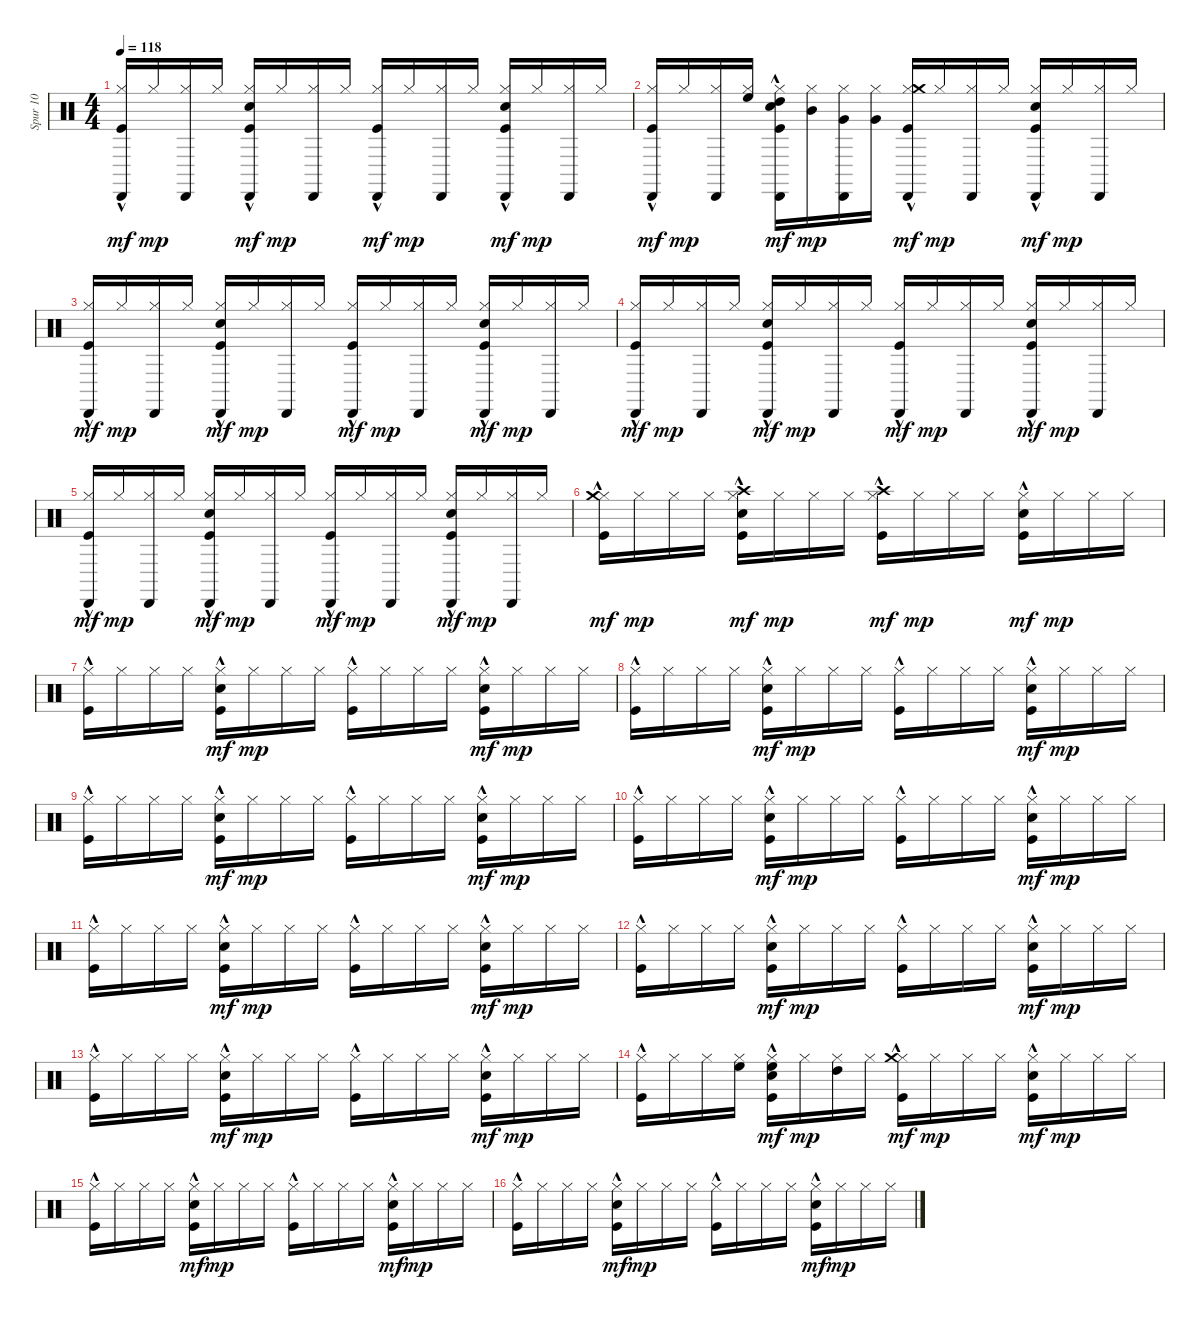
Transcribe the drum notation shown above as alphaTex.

\track ("Spur 10" "Spur 10") {instrument percussion}
\staff {score}
\articulation defaults
\ts (4 4)
\tempo 118
\clef neutral
\ks c
("Hi-Hat (closed)" "Kick (hit)"{hac} "Cabasa (hit)").16{dy mf} "Hi-Hat (closed)".16{dy mp} ("Hi-Hat (closed)" "Cabasa (hit)").16 "Hi-Hat (closed)".16 ("Hi-Hat (closed)" "Kick (hit)"{hac} "Electric Snare (hit)" "Cabasa (hit)").16{dy mf} "Hi-Hat (closed)".16{dy mp} ("Hi-Hat (closed)" "Cabasa (hit)").16 "Hi-Hat (closed)".16 ("Hi-Hat (closed)" "Kick (hit)"{hac} "Cabasa (hit)").16{dy mf} "Hi-Hat (closed)".16{dy mp} ("Hi-Hat (closed)" "Cabasa (hit)").16 "Hi-Hat (closed)".16 ("Hi-Hat (closed)" "Kick (hit)"{hac} "Electric Snare (hit)" "Cabasa (hit)").16{dy mf} "Hi-Hat (closed)".16{dy mp} ("Hi-Hat (closed)" "Cabasa (hit)").16 "Hi-Hat (closed)".16 |
("Hi-Hat (closed)" "Kick (hit)"{hac} "Cabasa (hit)").16{dy mf} "Hi-Hat (closed)".16{dy mp} ("Hi-Hat (closed)" "Cabasa (hit)").16 ("High Floor Tom (hit)" "Hi-Hat (closed)").16 ("High Tom (hit)" "Hi-Hat (closed)" "Kick (hit)"{hac} "Electric Snare (hit)" "Cabasa (hit)").16{dy mf} ("Mid Tom (hit)" "Hi-Hat (closed)").16{dy mp} ("Very Low Tom (hit)" "Hi-Hat (closed)" "Cabasa (hit)").16 ("Very Low Tom (hit)" "Hi-Hat (closed)").16 ("Hi-Hat (closed)" "Kick (hit)"{hac} "Crash medium (hit)"{hac} "Cabasa (hit)").16{dy mf} "Hi-Hat (closed)".16{dy mp} ("Hi-Hat (closed)" "Cabasa (hit)").16 "Hi-Hat (closed)".16 ("Hi-Hat (closed)" "Kick (hit)"{hac} "Electric Snare (hit)" "Cabasa (hit)").16{dy mf} "Hi-Hat (closed)".16{dy mp} ("Hi-Hat (closed)" "Cabasa (hit)").16 "Hi-Hat (closed)".16 |
("Hi-Hat (closed)" "Kick (hit)"{hac} "Cabasa (hit)").16{dy mf} "Hi-Hat (closed)".16{dy mp} ("Hi-Hat (closed)" "Cabasa (hit)").16 "Hi-Hat (closed)".16 ("Hi-Hat (closed)" "Kick (hit)"{hac} "Electric Snare (hit)" "Cabasa (hit)").16{dy mf} "Hi-Hat (closed)".16{dy mp} ("Hi-Hat (closed)" "Cabasa (hit)").16 "Hi-Hat (closed)".16 ("Hi-Hat (closed)" "Kick (hit)"{hac} "Cabasa (hit)").16{dy mf} "Hi-Hat (closed)".16{dy mp} ("Hi-Hat (closed)" "Cabasa (hit)").16 "Hi-Hat (closed)".16 ("Hi-Hat (closed)" "Kick (hit)"{hac} "Electric Snare (hit)" "Cabasa (hit)").16{dy mf} "Hi-Hat (closed)".16{dy mp} ("Hi-Hat (closed)" "Cabasa (hit)").16 "Hi-Hat (closed)".16 |
("Hi-Hat (closed)" "Kick (hit)"{hac} "Cabasa (hit)").16{dy mf} "Hi-Hat (closed)".16{dy mp} ("Hi-Hat (closed)" "Cabasa (hit)").16 "Hi-Hat (closed)".16 ("Hi-Hat (closed)" "Kick (hit)"{hac} "Electric Snare (hit)" "Cabasa (hit)").16{dy mf} "Hi-Hat (closed)".16{dy mp} ("Hi-Hat (closed)" "Cabasa (hit)").16 "Hi-Hat (closed)".16 ("Hi-Hat (closed)" "Kick (hit)"{hac} "Cabasa (hit)").16{dy mf} "Hi-Hat (closed)".16{dy mp} ("Hi-Hat (closed)" "Cabasa (hit)").16 "Hi-Hat (closed)".16 ("Hi-Hat (closed)" "Kick (hit)"{hac} "Electric Snare (hit)" "Cabasa (hit)").16{dy mf} "Hi-Hat (closed)".16{dy mp} ("Hi-Hat (closed)" "Cabasa (hit)").16 "Hi-Hat (closed)".16 |
("Hi-Hat (closed)" "Kick (hit)"{hac} "Cabasa (hit)").16{dy mf} "Hi-Hat (closed)".16{dy mp} ("Hi-Hat (closed)" "Cabasa (hit)").16 "Hi-Hat (closed)".16 ("Hi-Hat (closed)" "Kick (hit)"{hac} "Electric Snare (hit)" "Cabasa (hit)").16{dy mf} "Hi-Hat (closed)".16{dy mp} ("Hi-Hat (closed)" "Cabasa (hit)").16 "Hi-Hat (closed)".16 ("Hi-Hat (closed)" "Kick (hit)"{hac} "Cabasa (hit)").16{dy mf} "Hi-Hat (closed)".16{dy mp} ("Hi-Hat (closed)" "Cabasa (hit)").16 "Hi-Hat (closed)".16 ("Hi-Hat (closed)" "Kick (hit)"{hac} "Electric Snare (hit)" "Cabasa (hit)").16{dy mf} "Hi-Hat (closed)".16{dy mp} ("Hi-Hat (closed)" "Cabasa (hit)").16 "Hi-Hat (closed)".16 |
("Hi-Hat (closed)" "Kick (hit)"{hac} "Crash medium (hit)"{hac}).16{dy mf} "Hi-Hat (closed)".16{dy mp} "Hi-Hat (closed)".16 "Hi-Hat (closed)".16 ("Hi-Hat (closed)" "Kick (hit)"{hac} "Electric Snare (hit)" "Crash high (hit)"{hac}).16{dy mf} "Hi-Hat (closed)".16{dy mp} "Hi-Hat (closed)".16 "Hi-Hat (closed)".16 ("Hi-Hat (closed)" "Kick (hit)"{hac} "Crash high (hit)"{hac}).16{dy mf} "Hi-Hat (closed)".16{dy mp} "Hi-Hat (closed)".16 "Hi-Hat (closed)".16 ("Hi-Hat (closed)" "Kick (hit)"{hac} "Electric Snare (hit)").16{dy mf} "Hi-Hat (closed)".16{dy mp} "Hi-Hat (closed)".16 "Hi-Hat (closed)".16 |
("Hi-Hat (closed)" "Kick (hit)"{hac}).16 "Hi-Hat (closed)".16 "Hi-Hat (closed)".16 "Hi-Hat (closed)".16 ("Hi-Hat (closed)" "Kick (hit)"{hac} "Electric Snare (hit)").16{dy mf} "Hi-Hat (closed)".16{dy mp} "Hi-Hat (closed)".16 "Hi-Hat (closed)".16 ("Hi-Hat (closed)" "Kick (hit)"{hac}).16 "Hi-Hat (closed)".16 "Hi-Hat (closed)".16 "Hi-Hat (closed)".16 ("Hi-Hat (closed)" "Kick (hit)"{hac} "Electric Snare (hit)").16{dy mf} "Hi-Hat (closed)".16{dy mp} "Hi-Hat (closed)".16 "Hi-Hat (closed)".16 |
("Hi-Hat (closed)" "Kick (hit)"{hac}).16 "Hi-Hat (closed)".16 "Hi-Hat (closed)".16 "Hi-Hat (closed)".16 ("Hi-Hat (closed)" "Kick (hit)"{hac} "Electric Snare (hit)").16{dy mf} "Hi-Hat (closed)".16{dy mp} "Hi-Hat (closed)".16 "Hi-Hat (closed)".16 ("Hi-Hat (closed)" "Kick (hit)"{hac}).16 "Hi-Hat (closed)".16 "Hi-Hat (closed)".16 "Hi-Hat (closed)".16 ("Hi-Hat (closed)" "Kick (hit)"{hac} "Electric Snare (hit)").16{dy mf} "Hi-Hat (closed)".16{dy mp} "Hi-Hat (closed)".16 "Hi-Hat (closed)".16 |
("Hi-Hat (closed)" "Kick (hit)"{hac}).16 "Hi-Hat (closed)".16 "Hi-Hat (closed)".16 "Hi-Hat (closed)".16 ("Hi-Hat (closed)" "Kick (hit)"{hac} "Electric Snare (hit)").16{dy mf} "Hi-Hat (closed)".16{dy mp} "Hi-Hat (closed)".16 "Hi-Hat (closed)".16 ("Hi-Hat (closed)" "Kick (hit)"{hac}).16 "Hi-Hat (closed)".16 "Hi-Hat (closed)".16 "Hi-Hat (closed)".16 ("Hi-Hat (closed)" "Kick (hit)"{hac} "Electric Snare (hit)").16{dy mf} "Hi-Hat (closed)".16{dy mp} "Hi-Hat (closed)".16 "Hi-Hat (closed)".16 |
("Hi-Hat (closed)" "Kick (hit)"{hac}).16 "Hi-Hat (closed)".16 "Hi-Hat (closed)".16 "Hi-Hat (closed)".16 ("Hi-Hat (closed)" "Kick (hit)"{hac} "Electric Snare (hit)").16{dy mf} "Hi-Hat (closed)".16{dy mp} "Hi-Hat (closed)".16 "Hi-Hat (closed)".16 ("Hi-Hat (closed)" "Kick (hit)"{hac}).16 "Hi-Hat (closed)".16 "Hi-Hat (closed)".16 "Hi-Hat (closed)".16 ("Hi-Hat (closed)" "Kick (hit)"{hac} "Electric Snare (hit)").16{dy mf} "Hi-Hat (closed)".16{dy mp} "Hi-Hat (closed)".16 "Hi-Hat (closed)".16 |
("Hi-Hat (closed)" "Kick (hit)"{hac}).16 "Hi-Hat (closed)".16 "Hi-Hat (closed)".16 "Hi-Hat (closed)".16 ("Hi-Hat (closed)" "Kick (hit)"{hac} "Electric Snare (hit)").16{dy mf} "Hi-Hat (closed)".16{dy mp} "Hi-Hat (closed)".16 "Hi-Hat (closed)".16 ("Hi-Hat (closed)" "Kick (hit)"{hac}).16 "Hi-Hat (closed)".16 "Hi-Hat (closed)".16 "Hi-Hat (closed)".16 ("Hi-Hat (closed)" "Kick (hit)"{hac} "Electric Snare (hit)").16{dy mf} "Hi-Hat (closed)".16{dy mp} "Hi-Hat (closed)".16 "Hi-Hat (closed)".16 |
("Hi-Hat (closed)" "Kick (hit)"{hac}).16 "Hi-Hat (closed)".16 "Hi-Hat (closed)".16 "Hi-Hat (closed)".16 ("Hi-Hat (closed)" "Kick (hit)"{hac} "Electric Snare (hit)").16{dy mf} "Hi-Hat (closed)".16{dy mp} "Hi-Hat (closed)".16 "Hi-Hat (closed)".16 ("Hi-Hat (closed)" "Kick (hit)"{hac}).16 "Hi-Hat (closed)".16 "Hi-Hat (closed)".16 "Hi-Hat (closed)".16 ("Hi-Hat (closed)" "Kick (hit)"{hac} "Electric Snare (hit)").16{dy mf} "Hi-Hat (closed)".16{dy mp} "Hi-Hat (closed)".16 "Hi-Hat (closed)".16 |
("Hi-Hat (closed)" "Kick (hit)"{hac}).16 "Hi-Hat (closed)".16 "Hi-Hat (closed)".16 "Hi-Hat (closed)".16 ("Hi-Hat (closed)" "Kick (hit)"{hac} "Electric Snare (hit)").16{dy mf} "Hi-Hat (closed)".16{dy mp} "Hi-Hat (closed)".16 "Hi-Hat (closed)".16 ("Hi-Hat (closed)" "Kick (hit)"{hac}).16 "Hi-Hat (closed)".16 "Hi-Hat (closed)".16 "Hi-Hat (closed)".16 ("Hi-Hat (closed)" "Kick (hit)"{hac} "Electric Snare (hit)").16{dy mf} "Hi-Hat (closed)".16{dy mp} "Hi-Hat (closed)".16 "Hi-Hat (closed)".16 |
("Hi-Hat (closed)" "Kick (hit)"{hac}).16 "Hi-Hat (closed)".16 "Hi-Hat (closed)".16 ("Hi-Hat (closed)" "High Floor Tom (hit)").16 ("High Floor Tom (hit)" "Hi-Hat (closed)" "Kick (hit)"{hac} "Electric Snare (hit)").16{dy mf} "Hi-Hat (closed)".16{dy mp} ("Hi-Hat (closed)" "High Tom (hit)").16 "Hi-Hat (closed)".16 ("Hi-Hat (closed)" "Kick (hit)"{hac} "Crash medium (hit)"{hac}).16{dy mf} "Hi-Hat (closed)".16{dy mp} "Hi-Hat (closed)".16 "Hi-Hat (closed)".16 ("Hi-Hat (closed)" "Kick (hit)"{hac} "Electric Snare (hit)").16{dy mf} "Hi-Hat (closed)".16{dy mp} "Hi-Hat (closed)".16 "Hi-Hat (closed)".16 |
("Hi-Hat (closed)" "Kick (hit)"{hac}).16 "Hi-Hat (closed)".16 "Hi-Hat (closed)".16 "Hi-Hat (closed)".16 ("Hi-Hat (closed)" "Kick (hit)"{hac} "Electric Snare (hit)").16{dy mf} "Hi-Hat (closed)".16{dy mp} "Hi-Hat (closed)".16 "Hi-Hat (closed)".16 ("Hi-Hat (closed)" "Kick (hit)"{hac}).16 "Hi-Hat (closed)".16 "Hi-Hat (closed)".16 "Hi-Hat (closed)".16 ("Hi-Hat (closed)" "Kick (hit)"{hac} "Electric Snare (hit)").16{dy mf} "Hi-Hat (closed)".16{dy mp} "Hi-Hat (closed)".16 "Hi-Hat (closed)".16 |
("Hi-Hat (closed)" "Kick (hit)"{hac}).16 "Hi-Hat (closed)".16 "Hi-Hat (closed)".16 "Hi-Hat (closed)".16 ("Hi-Hat (closed)" "Kick (hit)"{hac} "Electric Snare (hit)").16{dy mf} "Hi-Hat (closed)".16{dy mp} "Hi-Hat (closed)".16 "Hi-Hat (closed)".16 ("Hi-Hat (closed)" "Kick (hit)"{hac}).16 "Hi-Hat (closed)".16 "Hi-Hat (closed)".16 "Hi-Hat (closed)".16 ("Hi-Hat (closed)" "Kick (hit)"{hac} "Electric Snare (hit)").16{dy mf} "Hi-Hat (closed)".16{dy mp} "Hi-Hat (closed)".16 "Hi-Hat (closed)".16
